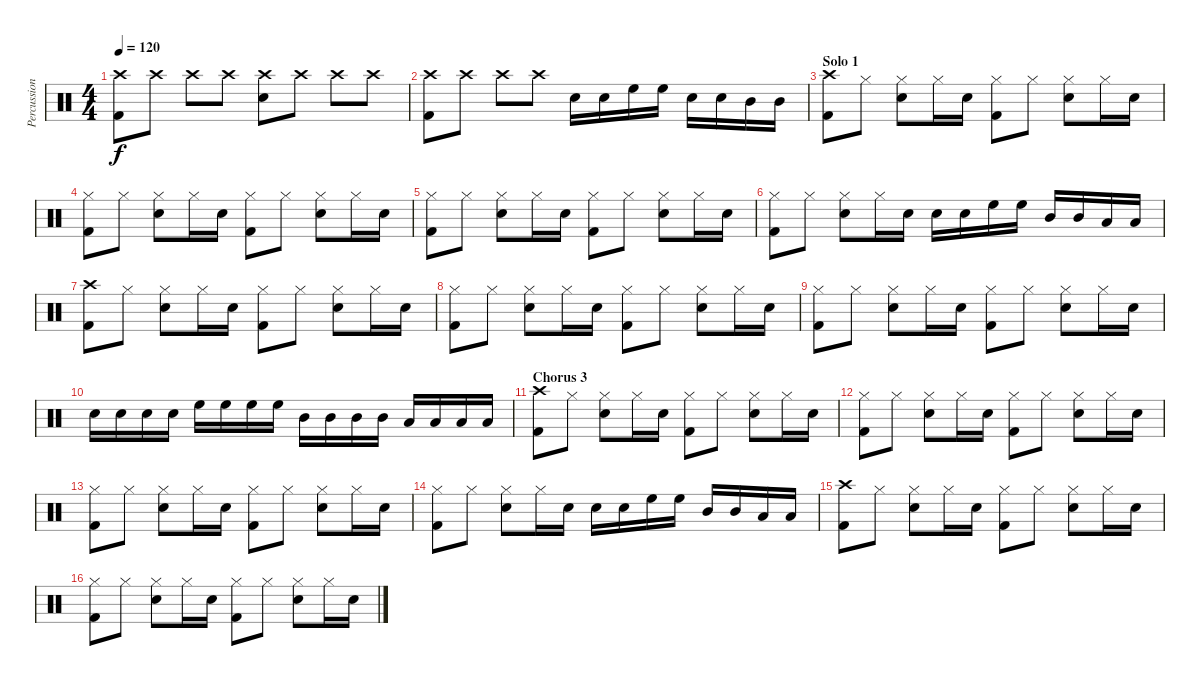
\track ("Percussion" "Percussion") {instrument percussion}
\staff {score}
\articulation defaults
\ts (4 4)
\tempo 120
\clef neutral
\ks c
("Crash high (hit)" "Kick (hit) 2").8{dy f} "Crash high (hit)".8 "Crash high (hit)".8 "Crash high (hit)".8 ("Crash high (hit)" "Electric Snare (hit)").8 "Crash high (hit)".8 "Crash high (hit)".8 "Crash high (hit)".8 |
("Crash high (hit)" "Kick (hit) 2").8 "Crash high (hit)".8 "Crash high (hit)".8 "Crash high (hit)".8 "Electric Snare (hit)".16 "Electric Snare (hit)".16 "High Floor Tom (hit)".16 "High Floor Tom (hit)".16 "Electric Snare (hit)".16 "Electric Snare (hit)".16 "Mid Tom (hit)".16 "Mid Tom (hit)".16 |
\section ("" "Solo 1")
("Crash high (hit)" "Kick (hit) 2").8 "Hi-Hat (closed)".8 ("Electric Snare (hit)" "Hi-Hat (closed)").8 "Hi-Hat (closed)".16 "Electric Snare (hit)".16 ("Hi-Hat (closed)" "Kick (hit) 2").8 "Hi-Hat (closed)".8 ("Electric Snare (hit)" "Hi-Hat (closed)").8 "Hi-Hat (closed)".16 "Electric Snare (hit)".16 |
("Hi-Hat (closed)" "Kick (hit) 2").8 "Hi-Hat (closed)".8 ("Electric Snare (hit)" "Hi-Hat (closed)").8 "Hi-Hat (closed)".16 "Electric Snare (hit)".16 ("Hi-Hat (closed)" "Kick (hit) 2").8 "Hi-Hat (closed)".8 ("Electric Snare (hit)" "Hi-Hat (closed)").8 "Hi-Hat (closed)".16 "Electric Snare (hit)".16 |
("Hi-Hat (closed)" "Kick (hit) 2").8 "Hi-Hat (closed)".8 ("Electric Snare (hit)" "Hi-Hat (closed)").8 "Hi-Hat (closed)".16 "Electric Snare (hit)".16 ("Hi-Hat (closed)" "Kick (hit) 2").8 "Hi-Hat (closed)".8 ("Electric Snare (hit)" "Hi-Hat (closed)").8 "Hi-Hat (closed)".16 "Electric Snare (hit)".16 |
("Hi-Hat (closed)" "Kick (hit) 2").8 "Hi-Hat (closed)".8 ("Electric Snare (hit)" "Hi-Hat (closed)").8 "Hi-Hat (closed)".16 "Electric Snare (hit)".16 "Electric Snare (hit)".16 "Electric Snare (hit)".16 "High Floor Tom (hit)".16 "High Floor Tom (hit)".16 "Mid Tom (hit)".16 "Mid Tom (hit)".16 "Low Tom (hit)".16 "Low Tom (hit)".16 |
("Crash high (hit)" "Kick (hit) 2").8 "Hi-Hat (closed)".8 ("Electric Snare (hit)" "Hi-Hat (closed)").8 "Hi-Hat (closed)".16 "Electric Snare (hit)".16 ("Hi-Hat (closed)" "Kick (hit) 2").8 "Hi-Hat (closed)".8 ("Electric Snare (hit)" "Hi-Hat (closed)").8 "Hi-Hat (closed)".16 "Electric Snare (hit)".16 |
("Hi-Hat (closed)" "Kick (hit) 2").8 "Hi-Hat (closed)".8 ("Electric Snare (hit)" "Hi-Hat (closed)").8 "Hi-Hat (closed)".16 "Electric Snare (hit)".16 ("Hi-Hat (closed)" "Kick (hit) 2").8 "Hi-Hat (closed)".8 ("Electric Snare (hit)" "Hi-Hat (closed)").8 "Hi-Hat (closed)".16 "Electric Snare (hit)".16 |
("Hi-Hat (closed)" "Kick (hit) 2").8 "Hi-Hat (closed)".8 ("Electric Snare (hit)" "Hi-Hat (closed)").8 "Hi-Hat (closed)".16 "Electric Snare (hit)".16 ("Hi-Hat (closed)" "Kick (hit) 2").8 "Hi-Hat (closed)".8 ("Electric Snare (hit)" "Hi-Hat (closed)").8 "Hi-Hat (closed)".16 "Electric Snare (hit)".16 |
"Electric Snare (hit)".16 "Electric Snare (hit)".16 "Electric Snare (hit)".16 "Electric Snare (hit)".16 "High Floor Tom (hit)".16 "High Floor Tom (hit)".16 "High Floor Tom (hit)".16 "High Floor Tom (hit)".16 "Mid Tom (hit)".16 "Mid Tom (hit)".16 "Mid Tom (hit)".16 "Mid Tom (hit)".16 "Low Tom (hit)".16 "Low Tom (hit)".16 "Low Tom (hit)".16 "Low Tom (hit)".16 |
\section ("" "Chorus 3")
("Crash high (hit)" "Kick (hit) 2").8 "Hi-Hat (closed)".8 ("Electric Snare (hit)" "Hi-Hat (closed)").8 "Hi-Hat (closed)".16 "Electric Snare (hit)".16 ("Hi-Hat (closed)" "Kick (hit) 2").8 "Hi-Hat (closed)".8 ("Electric Snare (hit)" "Hi-Hat (closed)").8 "Hi-Hat (closed)".16 "Electric Snare (hit)".16 |
("Hi-Hat (closed)" "Kick (hit) 2").8 "Hi-Hat (closed)".8 ("Electric Snare (hit)" "Hi-Hat (closed)").8 "Hi-Hat (closed)".16 "Electric Snare (hit)".16 ("Hi-Hat (closed)" "Kick (hit) 2").8 "Hi-Hat (closed)".8 ("Electric Snare (hit)" "Hi-Hat (closed)").8 "Hi-Hat (closed)".16 "Electric Snare (hit)".16 |
("Hi-Hat (closed)" "Kick (hit) 2").8 "Hi-Hat (closed)".8 ("Electric Snare (hit)" "Hi-Hat (closed)").8 "Hi-Hat (closed)".16 "Electric Snare (hit)".16 ("Hi-Hat (closed)" "Kick (hit) 2").8 "Hi-Hat (closed)".8 ("Electric Snare (hit)" "Hi-Hat (closed)").8 "Hi-Hat (closed)".16 "Electric Snare (hit)".16 |
("Hi-Hat (closed)" "Kick (hit) 2").8 "Hi-Hat (closed)".8 ("Electric Snare (hit)" "Hi-Hat (closed)").8 "Hi-Hat (closed)".16 "Electric Snare (hit)".16 "Electric Snare (hit)".16 "Electric Snare (hit)".16 "High Floor Tom (hit)".16 "High Floor Tom (hit)".16 "Mid Tom (hit)".16 "Mid Tom (hit)".16 "Low Tom (hit)".16 "Low Tom (hit)".16 |
("Crash high (hit)" "Kick (hit) 2").8 "Hi-Hat (closed)".8 ("Electric Snare (hit)" "Hi-Hat (closed)").8 "Hi-Hat (closed)".16 "Electric Snare (hit)".16 ("Hi-Hat (closed)" "Kick (hit) 2").8 "Hi-Hat (closed)".8 ("Electric Snare (hit)" "Hi-Hat (closed)").8 "Hi-Hat (closed)".16 "Electric Snare (hit)".16 |
("Hi-Hat (closed)" "Kick (hit) 2").8 "Hi-Hat (closed)".8 ("Electric Snare (hit)" "Hi-Hat (closed)").8 "Hi-Hat (closed)".16 "Electric Snare (hit)".16 ("Hi-Hat (closed)" "Kick (hit) 2").8 "Hi-Hat (closed)".8 ("Electric Snare (hit)" "Hi-Hat (closed)").8 "Hi-Hat (closed)".16 "Electric Snare (hit)".16
